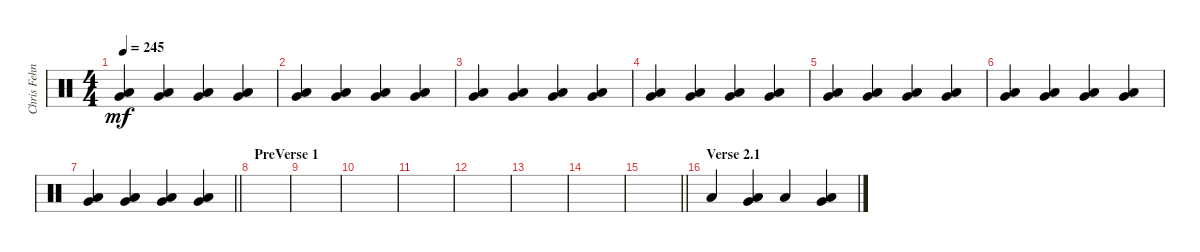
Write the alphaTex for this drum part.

\track ("Chris Fehn" "Chris Fehn") {instrument percussion}
\staff {score}
\articulation defaults
\ts (4 4)
\tempo 245
\clef neutral
\ks c
("Very Low Tom (hit)" "Low Floor Tom (hit)").4{dy mf} ("Very Low Tom (hit)" "Low Floor Tom (hit)").4 ("Very Low Tom (hit)" "Low Floor Tom (hit)").4 ("Very Low Tom (hit)" "Low Floor Tom (hit)").4 |
("Very Low Tom (hit)" "Low Floor Tom (hit)").4 ("Very Low Tom (hit)" "Low Floor Tom (hit)").4 ("Very Low Tom (hit)" "Low Floor Tom (hit)").4 ("Very Low Tom (hit)" "Low Floor Tom (hit)").4 |
("Very Low Tom (hit)" "Low Floor Tom (hit)").4 ("Very Low Tom (hit)" "Low Floor Tom (hit)").4 ("Very Low Tom (hit)" "Low Floor Tom (hit)").4 ("Very Low Tom (hit)" "Low Floor Tom (hit)").4 |
("Very Low Tom (hit)" "Low Floor Tom (hit)").4 ("Very Low Tom (hit)" "Low Floor Tom (hit)").4 ("Very Low Tom (hit)" "Low Floor Tom (hit)").4 ("Very Low Tom (hit)" "Low Floor Tom (hit)").4 |
("Very Low Tom (hit)" "Low Floor Tom (hit)").4 ("Very Low Tom (hit)" "Low Floor Tom (hit)").4 ("Very Low Tom (hit)" "Low Floor Tom (hit)").4 ("Very Low Tom (hit)" "Low Floor Tom (hit)").4 |
("Very Low Tom (hit)" "Low Floor Tom (hit)").4 ("Very Low Tom (hit)" "Low Floor Tom (hit)").4 ("Very Low Tom (hit)" "Low Floor Tom (hit)").4 ("Very Low Tom (hit)" "Low Floor Tom (hit)").4 |
\barLineRight lightlight
("Very Low Tom (hit)" "Low Floor Tom (hit)").4 ("Very Low Tom (hit)" "Low Floor Tom (hit)").4 ("Very Low Tom (hit)" "Low Floor Tom (hit)").4 ("Very Low Tom (hit)" "Low Floor Tom (hit)").4 |
\section ("" "PreVerse 1")
|
|
|
|
|
|
|
\barLineRight lightlight
|
\section ("" "Verse 2.1")
"Low Floor Tom (hit)".4 ("Very Low Tom (hit)" "Low Floor Tom (hit)").4 "Low Floor Tom (hit)".4 ("Very Low Tom (hit)" "Low Floor Tom (hit)").4
